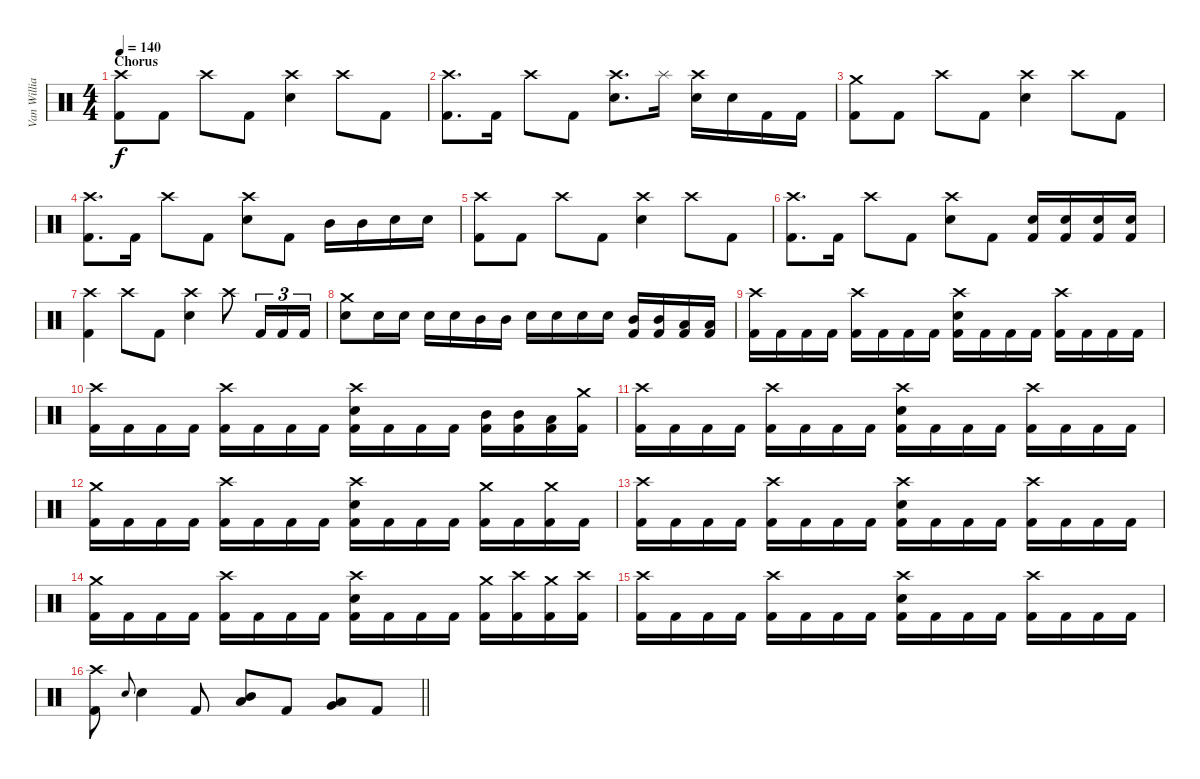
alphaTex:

\track ("Van Williams" "Van Willia") {instrument percussion}
\staff {score}
\articulation defaults
\ts (4 4)
\section ("" "Chorus")
\tempo 140
\clef neutral
\ks c
("Crash high (hit)" "Kick (hit) 2").8{dy f} "Kick (hit) 2".8 "Crash high (hit)".8 "Kick (hit) 2".8 ("Crash high (hit)" "Electric Snare (hit)").4 "Crash high (hit)".8 "Kick (hit) 2".8 |
("Crash high (hit)" "Kick (hit) 2").8{d} "Kick (hit) 2".16 "Crash high (hit)".8 "Kick (hit) 2".8 ("Crash high (hit)" "Electric Snare (hit)").8{d} "Splash (hit)".16 ("Crash high (hit)" "Electric Snare (hit)").16 "Electric Snare (hit)".16 "Kick (hit) 2".16 "Kick (hit) 2".16 |
("Crash medium (hit)" "Kick (hit) 2").8 "Kick (hit) 2".8 "Crash high (hit)".8 "Kick (hit) 2".8 ("Crash high (hit)" "Electric Snare (hit)").4 "Crash high (hit)".8 "Kick (hit) 2".8 |
("Crash high (hit)" "Kick (hit) 2").8{d} "Kick (hit) 2".16 "Crash high (hit)".8 "Kick (hit) 2".8 ("Crash high (hit)" "Electric Snare (hit)").8 "Kick (hit) 2".8 "Mid Tom (hit)".16 "Mid Tom (hit)".16 "Electric Snare (hit)".16 "Electric Snare (hit)".16 |
("Crash high (hit)" "Kick (hit) 2").8 "Kick (hit) 2".8 "Crash high (hit)".8 "Kick (hit) 2".8 ("Crash high (hit)" "Electric Snare (hit)").4 "Crash high (hit)".8 "Kick (hit) 2".8 |
("Crash high (hit)" "Kick (hit) 2").8{d} "Kick (hit) 2".16 "Crash high (hit)".8 "Kick (hit) 2".8 ("Crash high (hit)" "Electric Snare (hit)").8 "Kick (hit) 2".8 ("Electric Snare (hit)" "Kick (hit) 2").16 ("Electric Snare (hit)" "Kick (hit) 2").16 ("Electric Snare (hit)" "Kick (hit) 2").16 ("Electric Snare (hit)" "Kick (hit) 2").16 |
("Crash high (hit)" "Kick (hit) 2").4 "Crash high (hit)".8 "Kick (hit) 2".8 ("Crash high (hit)" "Electric Snare (hit)").4 "Crash high (hit)".8 "Kick (hit) 2".16{tu (3 2)} "Kick (hit) 2".16{tu (3 2)} "Kick (hit) 2".16{tu (3 2)} |
("Crash medium (hit)" "Electric Snare (hit)").8 "Electric Snare (hit)".16 "Electric Snare (hit)".16 "Electric Snare (hit)".16 "Electric Snare (hit)".16 "Mid Tom (hit)".16 "Mid Tom (hit)".16 "Electric Snare (hit)".16 "Electric Snare (hit)".16 "Electric Snare (hit)".16 "Electric Snare (hit)".16 ("Mid Tom (hit)" "Kick (hit) 2").16 ("Mid Tom (hit)" "Kick (hit) 2").16 ("Low Tom (hit)" "Kick (hit) 2").16 ("Low Tom (hit)" "Kick (hit) 2").16 |
("Crash high (hit)" "Kick (hit) 2").16 "Kick (hit) 2".16 "Kick (hit) 2".16 "Kick (hit) 2".16 ("Crash high (hit)" "Kick (hit) 2").16 "Kick (hit) 2".16 "Kick (hit) 2".16 "Kick (hit) 2".16 ("Crash high (hit)" "Electric Snare (hit)" "Kick (hit) 2").16 "Kick (hit) 2".16 "Kick (hit) 2".16 "Kick (hit) 2".16 ("Crash high (hit)" "Kick (hit) 2").16 "Kick (hit) 2".16 "Kick (hit) 2".16 "Kick (hit) 2".16 |
("Crash high (hit)" "Kick (hit) 2").16 "Kick (hit) 2".16 "Kick (hit) 2".16 "Kick (hit) 2".16 ("Crash high (hit)" "Kick (hit) 2").16 "Kick (hit) 2".16 "Kick (hit) 2".16 "Kick (hit) 2".16 ("Crash high (hit)" "Electric Snare (hit)" "Kick (hit) 2").16 "Kick (hit) 2".16 "Kick (hit) 2".16 "Kick (hit) 2".16 ("Mid Tom (hit)" "Kick (hit) 2").16 ("Mid Tom (hit)" "Kick (hit) 2").16 ("Low Tom (hit)" "Kick (hit) 2").16 ("Crash medium (hit)" "Kick (hit) 2").16 |
("Crash high (hit)" "Kick (hit) 2").16 "Kick (hit) 2".16 "Kick (hit) 2".16 "Kick (hit) 2".16 ("Crash high (hit)" "Kick (hit) 2").16 "Kick (hit) 2".16 "Kick (hit) 2".16 "Kick (hit) 2".16 ("Crash high (hit)" "Electric Snare (hit)" "Kick (hit) 2").16 "Kick (hit) 2".16 "Kick (hit) 2".16 "Kick (hit) 2".16 ("Crash high (hit)" "Kick (hit) 2").16 "Kick (hit) 2".16 "Kick (hit) 2".16 "Kick (hit) 2".16 |
("Crash medium (hit)" "Kick (hit) 2").16 "Kick (hit) 2".16 "Kick (hit) 2".16 "Kick (hit) 2".16 ("Crash high (hit)" "Kick (hit) 2").16 "Kick (hit) 2".16 "Kick (hit) 2".16 "Kick (hit) 2".16 ("Crash high (hit)" "Electric Snare (hit)" "Kick (hit) 2").16 "Kick (hit) 2".16 "Kick (hit) 2".16 "Kick (hit) 2".16 ("Crash medium (hit)" "Kick (hit) 2").16 "Kick (hit) 2".16 ("Crash medium (hit)" "Kick (hit) 2").16 "Kick (hit) 2".16 |
("Crash high (hit)" "Kick (hit) 2").16 "Kick (hit) 2".16 "Kick (hit) 2".16 "Kick (hit) 2".16 ("Crash high (hit)" "Kick (hit) 2").16 "Kick (hit) 2".16 "Kick (hit) 2".16 "Kick (hit) 2".16 ("Crash high (hit)" "Electric Snare (hit)" "Kick (hit) 2").16 "Kick (hit) 2".16 "Kick (hit) 2".16 "Kick (hit) 2".16 ("Crash high (hit)" "Kick (hit) 2").16 "Kick (hit) 2".16 "Kick (hit) 2".16 "Kick (hit) 2".16 |
("Crash medium (hit)" "Kick (hit) 2").16 "Kick (hit) 2".16 "Kick (hit) 2".16 "Kick (hit) 2".16 ("Crash high (hit)" "Kick (hit) 2").16 "Kick (hit) 2".16 "Kick (hit) 2".16 "Kick (hit) 2".16 ("Crash high (hit)" "Electric Snare (hit)" "Kick (hit) 2").16 "Kick (hit) 2".16 "Kick (hit) 2".16 "Kick (hit) 2".16 ("Crash medium (hit)" "Kick (hit) 2").16 ("Crash high (hit)" "Kick (hit) 2").16 ("Crash medium (hit)" "Kick (hit) 2").16 ("Crash high (hit)" "Kick (hit) 2").16 |
("Crash high (hit)" "Kick (hit) 2").16 "Kick (hit) 2".16 "Kick (hit) 2".16 "Kick (hit) 2".16 ("Crash high (hit)" "Kick (hit) 2").16 "Kick (hit) 2".16 "Kick (hit) 2".16 "Kick (hit) 2".16 ("Crash high (hit)" "Electric Snare (hit)" "Kick (hit) 2").16 "Kick (hit) 2".16 "Kick (hit) 2".16 "Kick (hit) 2".16 ("Crash high (hit)" "Kick (hit) 2").16 "Kick (hit) 2".16 "Kick (hit) 2".16 "Kick (hit) 2".16 |
\barLineRight lightlight
("Crash high (hit)" "Kick (hit) 2").8 "Electric Snare (hit)".8{gr onbeat} "Electric Snare (hit)".4 "Kick (hit) 2".8 ("Mid Tom (hit)" "Low Tom (hit)").8 "Kick (hit) 2".8 ("Low Tom (hit)" "Very Low Tom (hit)").8 "Kick (hit) 2".8
